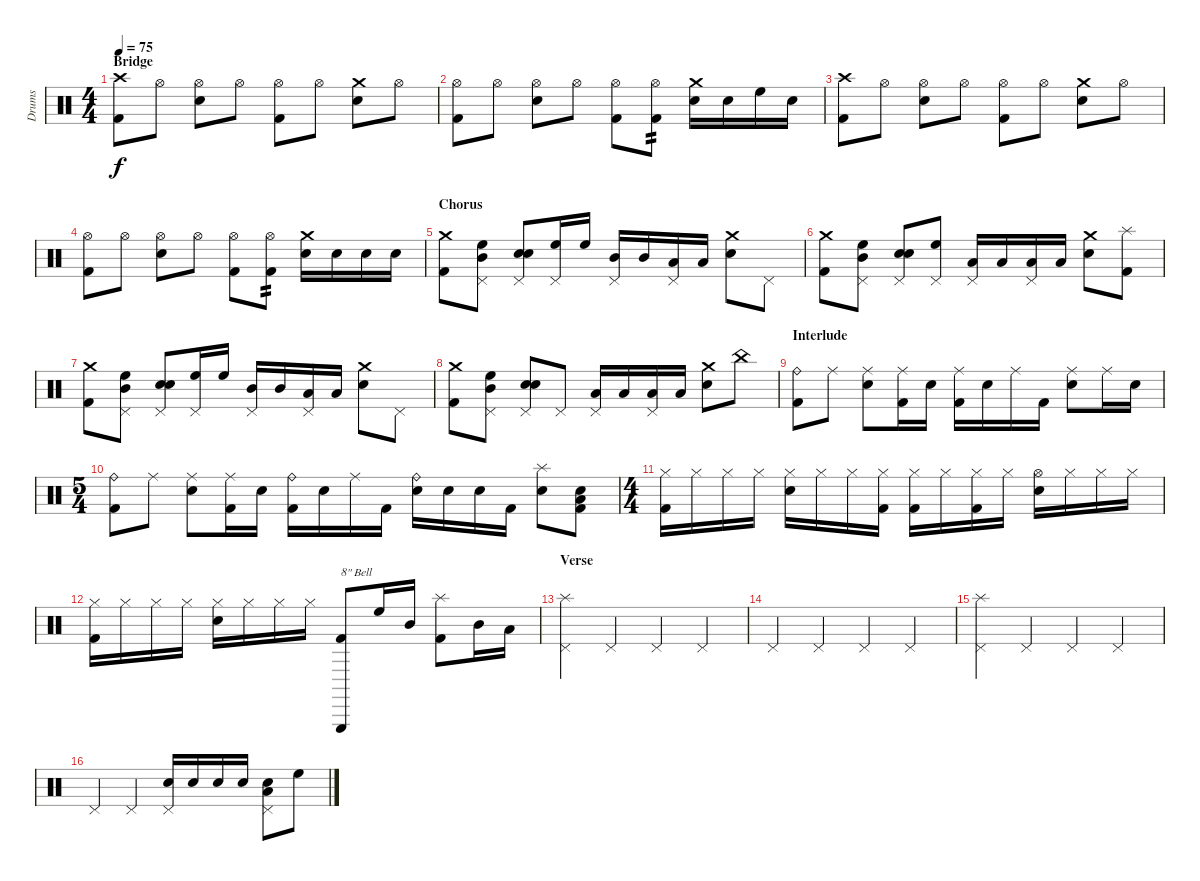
\track ("Drums" "Drums") {instrument percussion}
\staff {score}
\articulation defaults
\ts (4 4)
\section ("" "Bridge")
\tempo 75
\clef neutral
\ks c
("Crash high (hit)" "Kick (hit) 2").8{dy f} "Hi-Hat (open)".8 ("Hi-Hat (open)" "Snare (hit) 2").8 "Hi-Hat (open)".8 ("Hi-Hat (open)" "Kick (hit) 2").8 "Hi-Hat (open)".8 ("Crash medium (hit)" "Snare (hit) 2").8 "Hi-Hat (open)".8 |
("Hi-Hat (open)" "Kick (hit) 2").8 "Hi-Hat (open)".8 ("Hi-Hat (open)" "Snare (hit) 2").8 "Hi-Hat (open)".8 ("Hi-Hat (open)" "Kick (hit) 2").8 ("Hi-Hat (open)" "Kick (hit) 2").8{tp 2} ("Crash medium (hit)" "Snare (hit) 2").16 "Snare (hit) 2".16 "High Floor Tom (hit)".16 "Snare (hit) 2".16 |
("Crash high (hit)" "Kick (hit) 2").8 "Hi-Hat (open)".8 ("Hi-Hat (open)" "Snare (hit) 2").8 "Hi-Hat (open)".8 ("Hi-Hat (open)" "Kick (hit) 2").8 "Hi-Hat (open)".8 ("Crash medium (hit)" "Snare (hit) 2").8 "Hi-Hat (open)".8 |
("Hi-Hat (open)" "Kick (hit) 2").8 "Hi-Hat (open)".8 ("Hi-Hat (open)" "Snare (hit) 2").8 "Hi-Hat (open)".8 ("Hi-Hat (open)" "Kick (hit) 2").8 ("Hi-Hat (open)" "Kick (hit) 2").8{tp 2} ("Crash medium (hit)" "Snare (hit) 2").16 "Snare (hit) 2".16 "Snare (hit) 2".16 "Snare (hit) 2".16 |
\section ("" "Chorus")
("Crash medium (hit)" "Kick (hit) 2").8 ("Pedal Hi-Hat (hit)" "High Floor Tom (hit)" "Mid Tom (hit)").8 ("Pedal Hi-Hat (hit)" "Snare (hit) 2" "Snare (hit) 2").8 ("Pedal Hi-Hat (hit)" "High Floor Tom (hit)").16 "High Floor Tom (hit)".16 ("Pedal Hi-Hat (hit)" "Mid Tom (hit)").16 "Mid Tom (hit)".16 ("Pedal Hi-Hat (hit)" "Low Tom (hit)").16 "Low Tom (hit)".16 ("Crash medium (hit)" "Snare (hit) 2").8 "Pedal Hi-Hat (hit)".8 |
("Crash medium (hit)" "Kick (hit) 2").8 ("Pedal Hi-Hat (hit)" "High Floor Tom (hit)" "Mid Tom (hit)").8 ("Pedal Hi-Hat (hit)" "Snare (hit) 2" "Snare (hit) 2").8 ("Pedal Hi-Hat (hit)" "High Floor Tom (hit)").8 ("Pedal Hi-Hat (hit)" "Low Tom (hit)").16 "Low Tom (hit)".16 ("Pedal Hi-Hat (hit)" "Low Floor Tom (hit)").16 "Low Floor Tom (hit)".16 ("Crash medium (hit)" "Snare (hit) 2").8 ("Splash (hit)" "Kick (hit) 2").8 |
("Crash medium (hit)" "Kick (hit) 2").8 ("Pedal Hi-Hat (hit)" "High Floor Tom (hit)" "Mid Tom (hit)").8 ("Pedal Hi-Hat (hit)" "Snare (hit) 2" "Snare (hit) 2").8 ("Pedal Hi-Hat (hit)" "High Floor Tom (hit)").16 "High Floor Tom (hit)".16 ("Pedal Hi-Hat (hit)" "Mid Tom (hit)").16 "Mid Tom (hit)".16 ("Pedal Hi-Hat (hit)" "Low Tom (hit)").16 "Low Tom (hit)".16 ("Crash medium (hit)" "Snare (hit) 2").8 "Pedal Hi-Hat (hit)".8 |
("Crash medium (hit)" "Kick (hit) 2").8 ("Pedal Hi-Hat (hit)" "High Floor Tom (hit)" "Mid Tom (hit)").8 ("Pedal Hi-Hat (hit)" "Snare (hit) 2" "Snare (hit) 2").8 "Pedal Hi-Hat (hit)".8 ("Pedal Hi-Hat (hit)" "Low Tom (hit)").16 "Low Tom (hit)".16 ("Pedal Hi-Hat (hit)" "Low Floor Tom (hit)").16 "Low Floor Tom (hit)".16 ("Crash medium (hit)" "Snare (hit) 2").8 "China (hit)".8 |
\section ("" "Interlude")
("Ride (bell)" "Kick (hit) 2").8 "Ride (middle)".8 ("Ride (middle)" "Snare (hit) 2").8 ("Ride (middle)" "Kick (hit) 2").16 "Snare (hit) 2".16 ("Ride (middle)" "Kick (hit) 2").16 "Snare (hit) 2".16 "Ride (middle)".16 "Kick (hit) 2".16 ("Ride (middle)" "Snare (hit) 2").8 "Ride (middle)".16 "Snare (hit) 2".16 |
\ts (5 4)
("Ride (bell)" "Kick (hit) 2").8 "Ride (middle)".8 ("Ride (middle)" "Snare (hit) 2").8 ("Ride (middle)" "Kick (hit) 2").16 "Snare (hit) 2".16 ("Ride (bell)" "Kick (hit) 2").16 "Snare (hit) 2".16 "Ride (middle)".16 "Kick (hit) 2".16 ("Ride (bell)" "Snare (hit) 2").16 "Snare (hit) 2".16 "Snare (hit) 2".16 "Kick (hit) 2".16 ("Splash (hit)" "Snare (hit) 2").8 ("Snare (hit) 2" "Low Tom (hit)" "Kick (hit) 2").8 |
\ts (4 4)
("Hi-Hat (closed)" "Kick (hit) 2").16 "Hi-Hat (closed)".16 "Hi-Hat (closed)".16 "Hi-Hat (closed)".16 ("Hi-Hat (closed)" "Snare (hit) 2").16 "Hi-Hat (closed)".16 "Hi-Hat (closed)".16 ("Hi-Hat (closed)" "Kick (hit) 2").16 ("Hi-Hat (closed)" "Kick (hit) 2").16 "Hi-Hat (closed)".16 ("Hi-Hat (closed)" "Kick (hit) 2").16 "Hi-Hat (closed)".16 ("Hi-Hat (open)" "Snare (hit) 2").16 "Hi-Hat (closed)".16 "Hi-Hat (closed)".16 "Hi-Hat (closed)".16 |
("Hi-Hat (closed)" "Kick (hit) 2").16 "Hi-Hat (closed)".16 "Hi-Hat (closed)".16 "Hi-Hat (closed)".16 ("Hi-Hat (closed)" "Snare (hit) 2").16 "Hi-Hat (closed)".16 "Hi-Hat (closed)".16 "Hi-Hat (closed)".16 ("Triangle (hit)" "Kick (hit) 2").8{txt "8\" Bell"} "High Floor Tom (hit)".16 "Mid Tom (hit)".16 ("Splash (hit)" "Kick (hit) 2").8 "Mid Tom (hit)".16 "Low Tom (hit)".16 |
\section ("" "Verse")
("Pedal Hi-Hat (hit)" "Splash (hit)").4 "Pedal Hi-Hat (hit)".4 "Pedal Hi-Hat (hit)".4 "Pedal Hi-Hat (hit)".4 |
"Pedal Hi-Hat (hit)".4 "Pedal Hi-Hat (hit)".4 "Pedal Hi-Hat (hit)".4 "Pedal Hi-Hat (hit)".4 |
("Pedal Hi-Hat (hit)" "Splash (hit)").4 "Pedal Hi-Hat (hit)".4 "Pedal Hi-Hat (hit)".4 "Pedal Hi-Hat (hit)".4 |
"Pedal Hi-Hat (hit)".4 "Pedal Hi-Hat (hit)".4 ("Pedal Hi-Hat (hit)" "Snare (hit) 2").16 "Snare (hit) 2".16 "Snare (hit) 2".16 "Snare (hit) 2".16 ("Pedal Hi-Hat (hit)" "Snare (hit) 2" "Low Tom (hit)").8 "High Floor Tom (hit)".8
